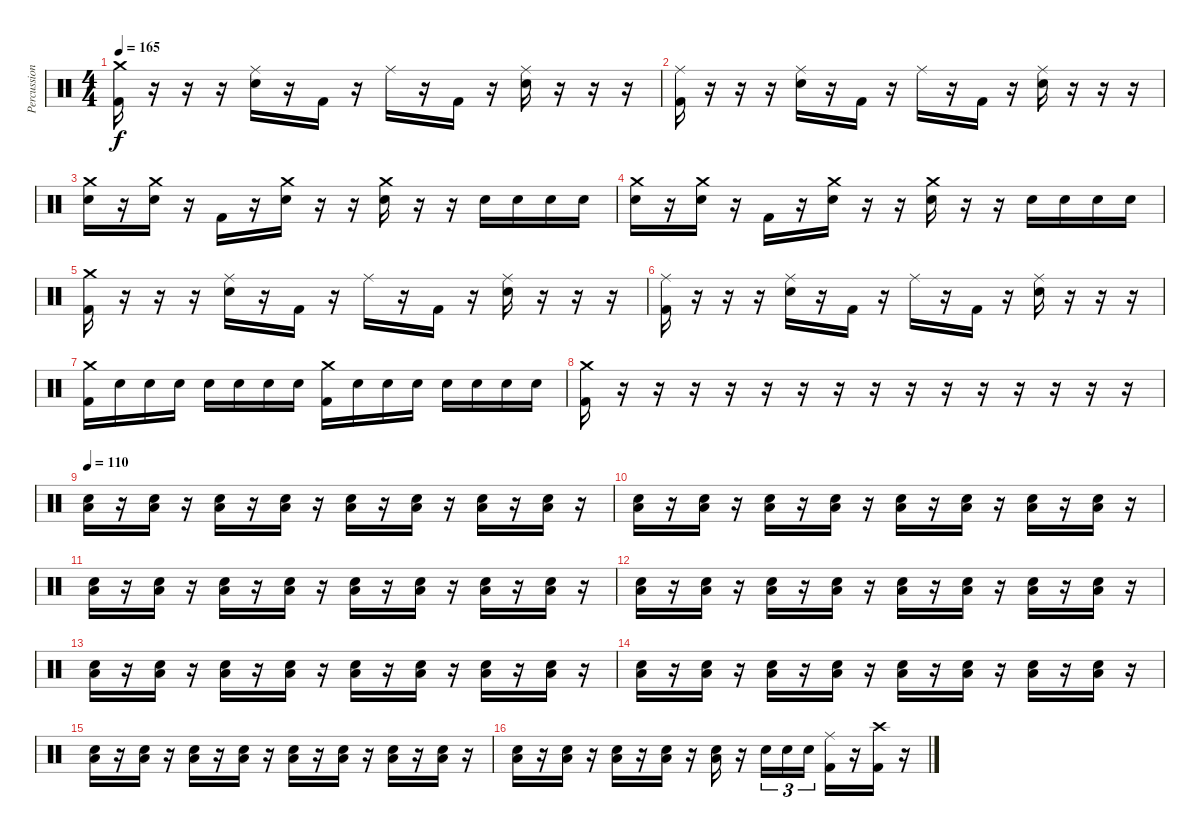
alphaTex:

\track ("Percussion" "Percussion") {instrument percussion}
\staff {score}
\articulation defaults
\ts (4 4)
\tempo 165
\clef neutral
\ks c
("Crash medium (hit)" "Kick (hit) 2").16{dy f} r.16 r.16 r.16 ("Ride (middle)" "Electric Snare (hit)").16 r.16 "Kick (hit) 2".16 r.16 "Ride (middle)".16 r.16 "Kick (hit) 2".16 r.16 ("Ride (middle)" "Electric Snare (hit)").16 r.16 r.16 r.16 |
("Ride (middle)" "Kick (hit) 2").16 r.16 r.16 r.16 ("Ride (middle)" "Electric Snare (hit)").16 r.16 "Kick (hit) 2".16 r.16 "Ride (middle)".16 r.16 "Kick (hit) 2".16 r.16 ("Ride (middle)" "Electric Snare (hit)").16 r.16 r.16 r.16 |
("Crash medium (hit)" "Electric Snare (hit)").16 r.16 ("Crash medium (hit)" "Electric Snare (hit)").16 r.16 "Kick (hit) 2".16 r.16 ("Crash medium (hit)" "Electric Snare (hit)").16 r.16 r.16 ("Crash medium (hit)" "Electric Snare (hit)").16 r.16 r.16 "Electric Snare (hit)".16 "Electric Snare (hit)".16 "Electric Snare (hit)".16 "Electric Snare (hit)".16 |
("Crash medium (hit)" "Electric Snare (hit)").16 r.16 ("Crash medium (hit)" "Electric Snare (hit)").16 r.16 "Kick (hit) 2".16 r.16 ("Crash medium (hit)" "Electric Snare (hit)").16 r.16 r.16 ("Crash medium (hit)" "Electric Snare (hit)").16 r.16 r.16 "Electric Snare (hit)".16 "Electric Snare (hit)".16 "Electric Snare (hit)".16 "Electric Snare (hit)".16 |
("Crash medium (hit)" "Kick (hit) 2").16 r.16 r.16 r.16 ("Ride (middle)" "Electric Snare (hit)").16 r.16 "Kick (hit) 2".16 r.16 "Ride (middle)".16 r.16 "Kick (hit) 2".16 r.16 ("Ride (middle)" "Electric Snare (hit)").16 r.16 r.16 r.16 |
("Ride (middle)" "Kick (hit) 2").16 r.16 r.16 r.16 ("Ride (middle)" "Electric Snare (hit)").16 r.16 "Kick (hit) 2".16 r.16 "Ride (middle)".16 r.16 "Kick (hit) 2".16 r.16 ("Ride (middle)" "Electric Snare (hit)").16 r.16 r.16 r.16 |
("Crash medium (hit)" "Kick (hit) 2").16 "Electric Snare (hit)".16 "Electric Snare (hit)".16 "Electric Snare (hit)".16 "Electric Snare (hit)".16 "Electric Snare (hit)".16 "Electric Snare (hit)".16 "Electric Snare (hit)".16 ("Crash medium (hit)" "Kick (hit) 2").16 "Electric Snare (hit)".16 "Electric Snare (hit)".16 "Electric Snare (hit)".16 "Electric Snare (hit)".16 "Electric Snare (hit)".16 "Electric Snare (hit)".16 "Electric Snare (hit)".16 |
("Crash medium (hit)" "Kick (hit) 2").16 r.16 r.16 r.16 r.16 r.16 r.16 r.16 r.16 r.16 r.16 r.16 r.16 r.16 r.16 r.16 |
\tempo 110
("Low Floor Tom (hit)" "Electric Snare (hit)").16{volume 7} r.16 ("Low Floor Tom (hit)" "Electric Snare (hit)").16 r.16 ("Low Floor Tom (hit)" "Electric Snare (hit)").16 r.16 ("Low Floor Tom (hit)" "Electric Snare (hit)").16 r.16 ("Low Floor Tom (hit)" "Electric Snare (hit)").16 r.16 ("Low Floor Tom (hit)" "Electric Snare (hit)").16{volume 10} r.16 ("Low Floor Tom (hit)" "Electric Snare (hit)").16 r.16 ("Low Floor Tom (hit)" "Electric Snare (hit)").16 r.16 |
("Low Floor Tom (hit)" "Electric Snare (hit)").16{volume 8} r.16 ("Low Floor Tom (hit)" "Electric Snare (hit)").16 r.16 ("Low Floor Tom (hit)" "Electric Snare (hit)").16 r.16 ("Low Floor Tom (hit)" "Electric Snare (hit)").16 r.16 ("Low Floor Tom (hit)" "Electric Snare (hit)").16 r.16 ("Low Floor Tom (hit)" "Electric Snare (hit)").16{volume 11} r.16 ("Low Floor Tom (hit)" "Electric Snare (hit)").16 r.16 ("Low Floor Tom (hit)" "Electric Snare (hit)").16 r.16 |
("Low Floor Tom (hit)" "Electric Snare (hit)").16{volume 7} r.16 ("Low Floor Tom (hit)" "Electric Snare (hit)").16 r.16 ("Low Floor Tom (hit)" "Electric Snare (hit)").16 r.16 ("Low Floor Tom (hit)" "Electric Snare (hit)").16 r.16 ("Low Floor Tom (hit)" "Electric Snare (hit)").16 r.16 ("Low Floor Tom (hit)" "Electric Snare (hit)").16{volume 10} r.16 ("Low Floor Tom (hit)" "Electric Snare (hit)").16 r.16 ("Low Floor Tom (hit)" "Electric Snare (hit)").16 r.16 |
("Low Floor Tom (hit)" "Electric Snare (hit)").16{volume 8} r.16 ("Low Floor Tom (hit)" "Electric Snare (hit)").16 r.16 ("Low Floor Tom (hit)" "Electric Snare (hit)").16 r.16 ("Low Floor Tom (hit)" "Electric Snare (hit)").16 r.16 ("Low Floor Tom (hit)" "Electric Snare (hit)").16 r.16 ("Low Floor Tom (hit)" "Electric Snare (hit)").16{volume 11} r.16 ("Low Floor Tom (hit)" "Electric Snare (hit)").16 r.16 ("Low Floor Tom (hit)" "Electric Snare (hit)").16 r.16 |
("Low Floor Tom (hit)" "Electric Snare (hit)").16{volume 12} r.16 ("Low Floor Tom (hit)" "Electric Snare (hit)").16{volume 9} r.16 ("Low Floor Tom (hit)" "Electric Snare (hit)").16 r.16 ("Low Floor Tom (hit)" "Electric Snare (hit)").16 r.16 ("Low Floor Tom (hit)" "Electric Snare (hit)").16 r.16 ("Low Floor Tom (hit)" "Electric Snare (hit)").16{volume 11} r.16 ("Low Floor Tom (hit)" "Electric Snare (hit)").16 r.16 ("Low Floor Tom (hit)" "Electric Snare (hit)").16 r.16 |
("Low Floor Tom (hit)" "Electric Snare (hit)").16{volume 12} r.16 ("Low Floor Tom (hit)" "Electric Snare (hit)").16{volume 9} r.16 ("Low Floor Tom (hit)" "Electric Snare (hit)").16 r.16 ("Low Floor Tom (hit)" "Electric Snare (hit)").16 r.16 ("Low Floor Tom (hit)" "Electric Snare (hit)").16 r.16 ("Low Floor Tom (hit)" "Electric Snare (hit)").16{volume 11} r.16 ("Low Floor Tom (hit)" "Electric Snare (hit)").16 r.16 ("Low Floor Tom (hit)" "Electric Snare (hit)").16 r.16 |
("Low Floor Tom (hit)" "Electric Snare (hit)").16{volume 12} r.16 ("Low Floor Tom (hit)" "Electric Snare (hit)").16{volume 9} r.16 ("Low Floor Tom (hit)" "Electric Snare (hit)").16 r.16 ("Low Floor Tom (hit)" "Electric Snare (hit)").16 r.16 ("Low Floor Tom (hit)" "Electric Snare (hit)").16 r.16 ("Low Floor Tom (hit)" "Electric Snare (hit)").16{volume 11} r.16 ("Low Floor Tom (hit)" "Electric Snare (hit)").16 r.16 ("Low Floor Tom (hit)" "Electric Snare (hit)").16 r.16 |
("Low Floor Tom (hit)" "Electric Snare (hit)").16{volume 13} r.16 ("Low Floor Tom (hit)" "Electric Snare (hit)").16 r.16 ("Low Floor Tom (hit)" "Electric Snare (hit)").16 r.16 ("Low Floor Tom (hit)" "Electric Snare (hit)").16 r.16 ("Low Floor Tom (hit)" "Electric Snare (hit)").16 r.16 "Electric Snare (hit)".16{tu (3 2)} "Electric Snare (hit)".16{tu (3 2)} "Electric Snare (hit)".16{tu (3 2)} ("Ride (middle)" "Kick (hit) 2").16 r.16 ("Crash high (hit)" "Kick (hit) 2").16 r.16
